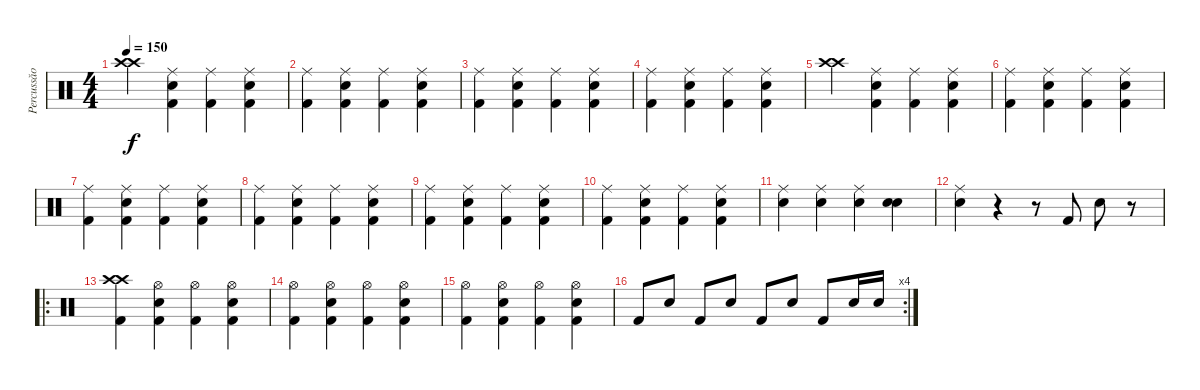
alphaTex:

\track ("Percussăo" "Percussăo") {instrument percussion}
\staff {score}
\articulation defaults
\ts (4 4)
\tempo 150
\clef neutral
\ks c
("Crash high (hit)" "Crash high (hit)").4{dy f} ("Ride (middle)" "Snare (hit) 2" "Kick (hit) 2").4 ("Ride (middle)" "Kick (hit) 2").4 ("Ride (middle)" "Snare (hit) 2" "Kick (hit) 2").4 |
("Ride (middle)" "Kick (hit) 2").4 ("Ride (middle)" "Snare (hit) 2" "Kick (hit) 2").4 ("Ride (middle)" "Kick (hit) 2").4 ("Ride (middle)" "Snare (hit) 2" "Kick (hit) 2").4 |
("Ride (middle)" "Kick (hit) 2").4 ("Ride (middle)" "Snare (hit) 2" "Kick (hit) 2").4 ("Ride (middle)" "Kick (hit) 2").4 ("Ride (middle)" "Snare (hit) 2" "Kick (hit) 2").4 |
("Ride (middle)" "Kick (hit) 2").4 ("Ride (middle)" "Snare (hit) 2" "Kick (hit) 2").4 ("Ride (middle)" "Kick (hit) 2").4 ("Ride (middle)" "Snare (hit) 2" "Kick (hit) 2").4 |
("Crash high (hit)" "Crash high (hit)").4 ("Ride (middle)" "Snare (hit) 2" "Kick (hit) 2").4 ("Ride (middle)" "Kick (hit) 2").4 ("Ride (middle)" "Snare (hit) 2" "Kick (hit) 2").4 |
("Ride (middle)" "Kick (hit) 2").4 ("Ride (middle)" "Snare (hit) 2" "Kick (hit) 2").4 ("Ride (middle)" "Kick (hit) 2").4 ("Ride (middle)" "Snare (hit) 2" "Kick (hit) 2").4 |
("Ride (middle)" "Kick (hit) 2").4 ("Ride (middle)" "Snare (hit) 2" "Kick (hit) 2").4 ("Ride (middle)" "Kick (hit) 2").4 ("Ride (middle)" "Snare (hit) 2" "Kick (hit) 2").4 |
("Ride (middle)" "Kick (hit) 2").4 ("Ride (middle)" "Snare (hit) 2" "Kick (hit) 2").4 ("Ride (middle)" "Kick (hit) 2").4 ("Ride (middle)" "Snare (hit) 2" "Kick (hit) 2").4 |
("Ride (middle)" "Kick (hit) 2").4 ("Ride (middle)" "Snare (hit) 2" "Kick (hit) 2").4 ("Ride (middle)" "Kick (hit) 2").4 ("Ride (middle)" "Snare (hit) 2" "Kick (hit) 2").4 |
("Ride (middle)" "Kick (hit) 2").4 ("Ride (middle)" "Snare (hit) 2" "Kick (hit) 2").4 ("Ride (middle)" "Kick (hit) 2").4 ("Ride (middle)" "Snare (hit) 2" "Kick (hit) 2").4 |
("Ride (middle)" "Snare (hit) 2").4 ("Ride (middle)" "Snare (hit) 2").4 ("Ride (middle)" "Snare (hit) 2").4 ("Snare (hit)" "Snare (hit) 2").4 |
("Ride (middle)" "Snare (hit) 2").4 r.4 r.8 "Kick (hit) 2".8 "Snare (hit) 2".8 r.8 |
\ro
("Crash high (hit)" "Crash high (hit)" "Kick (hit) 2").4 ("Hi-Hat (open)" "Snare (hit) 2" "Kick (hit) 2").4 ("Hi-Hat (open)" "Kick (hit) 2").4 ("Hi-Hat (open)" "Snare (hit) 2" "Kick (hit) 2").4 |
("Hi-Hat (open)" "Kick (hit) 2").4 ("Hi-Hat (open)" "Snare (hit) 2" "Kick (hit) 2").4 ("Hi-Hat (open)" "Kick (hit) 2").4 ("Hi-Hat (open)" "Snare (hit) 2" "Kick (hit) 2").4 |
("Hi-Hat (open)" "Kick (hit) 2").4 ("Hi-Hat (open)" "Snare (hit) 2" "Kick (hit) 2").4 ("Hi-Hat (open)" "Kick (hit) 2").4 ("Hi-Hat (open)" "Snare (hit) 2" "Kick (hit) 2").4 |
\rc 4 "Kick (hit) 2".8 "Snare (hit) 2".8 "Kick (hit) 2".8 "Snare (hit) 2".8 "Kick (hit) 2".8 "Snare (hit) 2".8 "Kick (hit) 2".8 "Snare (hit) 2".16 "Snare (hit) 2".16
